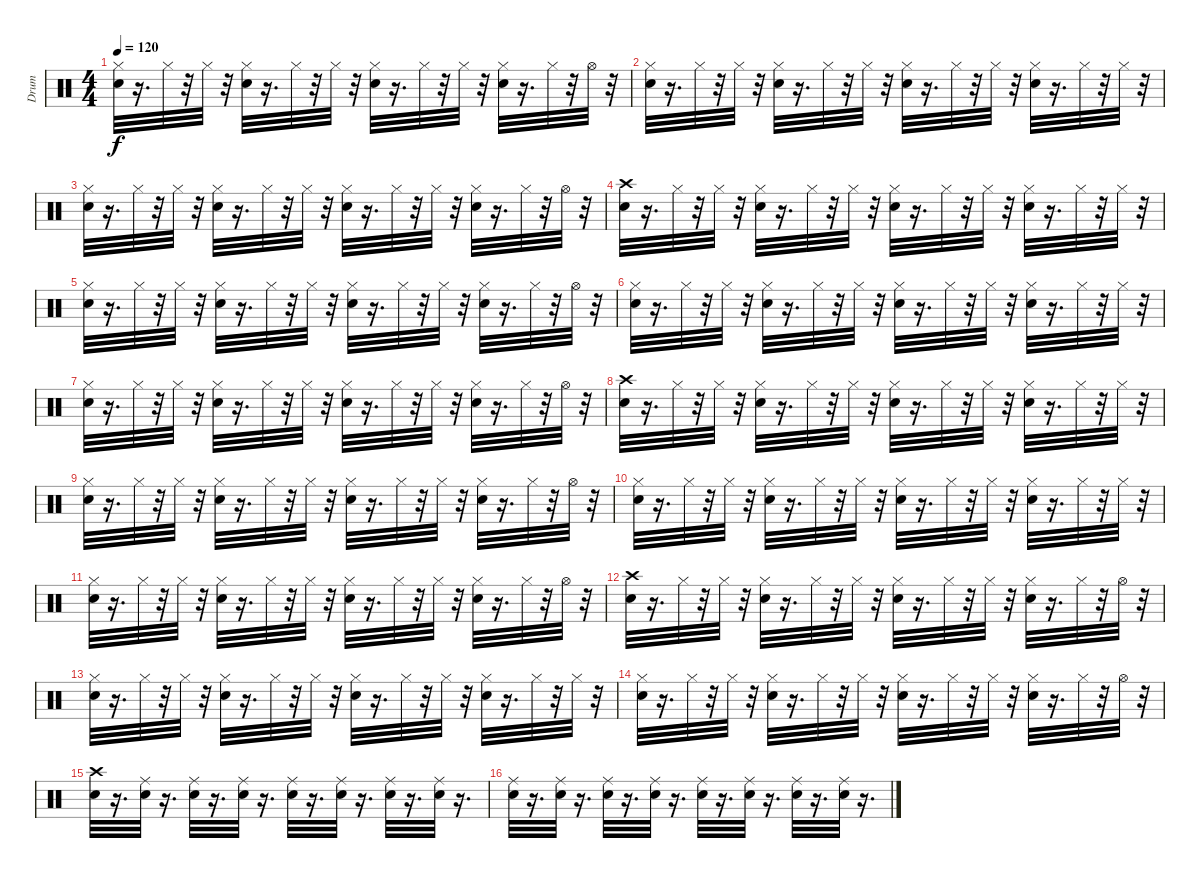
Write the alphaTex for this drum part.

\track ("Drum" "Drum") {instrument percussion}
\staff {score}
\articulation defaults
\ts (4 4)
\tempo 120
\clef neutral
\ks c
("Hi-Hat (closed)" "Snare (hit) 2").32{dy f} r.16{d} "Hi-Hat (closed)".32 r.32 "Hi-Hat (closed)".32 r.32 ("Hi-Hat (closed)" "Snare (hit) 2").32 r.16{d} "Hi-Hat (closed)".32 r.32 "Hi-Hat (closed)".32 r.32 ("Hi-Hat (closed)" "Snare (hit) 2").32 r.16{d} "Hi-Hat (closed)".32 r.32 "Hi-Hat (closed)".32 r.32 ("Hi-Hat (closed)" "Snare (hit) 2").32 r.16{d} "Hi-Hat (closed)".32 r.32 "Hi-Hat (open)".32 r.32 |
("Hi-Hat (closed)" "Snare (hit) 2").32 r.16{d} "Hi-Hat (closed)".32 r.32 "Hi-Hat (closed)".32 r.32 ("Hi-Hat (closed)" "Snare (hit) 2").32 r.16{d} "Hi-Hat (closed)".32 r.32 "Hi-Hat (closed)".32 r.32 ("Hi-Hat (closed)" "Snare (hit) 2").32 r.16{d} "Hi-Hat (closed)".32 r.32 "Hi-Hat (closed)".32 r.32 ("Hi-Hat (closed)" "Snare (hit) 2").32 r.16{d} "Hi-Hat (closed)".32 r.32 "Hi-Hat (closed)".32 r.32 |
("Hi-Hat (closed)" "Snare (hit) 2").32 r.16{d} "Hi-Hat (closed)".32 r.32 "Hi-Hat (closed)".32 r.32 ("Hi-Hat (closed)" "Snare (hit) 2").32 r.16{d} "Hi-Hat (closed)".32 r.32 "Hi-Hat (closed)".32 r.32 ("Hi-Hat (closed)" "Snare (hit) 2").32 r.16{d} "Hi-Hat (closed)".32 r.32 "Hi-Hat (closed)".32 r.32 ("Hi-Hat (closed)" "Snare (hit) 2").32 r.16{d} "Hi-Hat (closed)".32 r.32 "Hi-Hat (open)".32 r.32 |
("Crash high (hit)" "Snare (hit) 2").32 r.16{d} "Hi-Hat (closed)".32 r.32 "Hi-Hat (closed)".32 r.32 ("Hi-Hat (closed)" "Snare (hit) 2").32 r.16{d} "Hi-Hat (closed)".32 r.32 "Hi-Hat (closed)".32 r.32 ("Hi-Hat (closed)" "Snare (hit) 2").32 r.16{d} "Hi-Hat (closed)".32 r.32 "Hi-Hat (closed)".32 r.32 ("Hi-Hat (closed)" "Snare (hit) 2").32 r.16{d} "Hi-Hat (closed)".32 r.32 "Hi-Hat (closed)".32 r.32 |
("Hi-Hat (closed)" "Snare (hit) 2").32 r.16{d} "Hi-Hat (closed)".32 r.32 "Hi-Hat (closed)".32 r.32 ("Hi-Hat (closed)" "Snare (hit) 2").32 r.16{d} "Hi-Hat (closed)".32 r.32 "Hi-Hat (closed)".32 r.32 ("Hi-Hat (closed)" "Snare (hit) 2").32 r.16{d} "Hi-Hat (closed)".32 r.32 "Hi-Hat (closed)".32 r.32 ("Hi-Hat (closed)" "Snare (hit) 2").32 r.16{d} "Hi-Hat (closed)".32 r.32 "Hi-Hat (open)".32 r.32 |
("Hi-Hat (closed)" "Snare (hit) 2").32 r.16{d} "Hi-Hat (closed)".32 r.32 "Hi-Hat (closed)".32 r.32 ("Hi-Hat (closed)" "Snare (hit) 2").32 r.16{d} "Hi-Hat (closed)".32 r.32 "Hi-Hat (closed)".32 r.32 ("Hi-Hat (closed)" "Snare (hit) 2").32 r.16{d} "Hi-Hat (closed)".32 r.32 "Hi-Hat (closed)".32 r.32 ("Hi-Hat (closed)" "Snare (hit) 2").32 r.16{d} "Hi-Hat (closed)".32 r.32 "Hi-Hat (closed)".32 r.32 |
("Hi-Hat (closed)" "Snare (hit) 2").32 r.16{d} "Hi-Hat (closed)".32 r.32 "Hi-Hat (closed)".32 r.32 ("Hi-Hat (closed)" "Snare (hit) 2").32 r.16{d} "Hi-Hat (closed)".32 r.32 "Hi-Hat (closed)".32 r.32 ("Hi-Hat (closed)" "Snare (hit) 2").32 r.16{d} "Hi-Hat (closed)".32 r.32 "Hi-Hat (closed)".32 r.32 ("Hi-Hat (closed)" "Snare (hit) 2").32 r.16{d} "Hi-Hat (closed)".32 r.32 "Hi-Hat (open)".32 r.32 |
("Crash high (hit)" "Snare (hit) 2").32 r.16{d} "Hi-Hat (closed)".32 r.32 "Hi-Hat (closed)".32 r.32 ("Hi-Hat (closed)" "Snare (hit) 2").32 r.16{d} "Hi-Hat (closed)".32 r.32 "Hi-Hat (closed)".32 r.32 ("Hi-Hat (closed)" "Snare (hit) 2").32 r.16{d} "Hi-Hat (closed)".32 r.32 "Hi-Hat (closed)".32 r.32 ("Hi-Hat (closed)" "Snare (hit) 2").32 r.16{d} "Hi-Hat (closed)".32 r.32 "Hi-Hat (closed)".32 r.32 |
("Hi-Hat (closed)" "Snare (hit) 2").32 r.16{d} "Hi-Hat (closed)".32 r.32 "Hi-Hat (closed)".32 r.32 ("Hi-Hat (closed)" "Snare (hit) 2").32 r.16{d} "Hi-Hat (closed)".32 r.32 "Hi-Hat (closed)".32 r.32 ("Hi-Hat (closed)" "Snare (hit) 2").32 r.16{d} "Hi-Hat (closed)".32 r.32 "Hi-Hat (closed)".32 r.32 ("Hi-Hat (closed)" "Snare (hit) 2").32 r.16{d} "Hi-Hat (closed)".32 r.32 "Hi-Hat (open)".32 r.32 |
("Hi-Hat (closed)" "Snare (hit) 2").32 r.16{d} "Hi-Hat (closed)".32 r.32 "Hi-Hat (closed)".32 r.32 ("Hi-Hat (closed)" "Snare (hit) 2").32 r.16{d} "Hi-Hat (closed)".32 r.32 "Hi-Hat (closed)".32 r.32 ("Hi-Hat (closed)" "Snare (hit) 2").32 r.16{d} "Hi-Hat (closed)".32 r.32 "Hi-Hat (closed)".32 r.32 ("Hi-Hat (closed)" "Snare (hit) 2").32 r.16{d} "Hi-Hat (closed)".32 r.32 "Hi-Hat (closed)".32 r.32 |
("Hi-Hat (closed)" "Snare (hit) 2").32 r.16{d} "Hi-Hat (closed)".32 r.32 "Hi-Hat (closed)".32 r.32 ("Hi-Hat (closed)" "Snare (hit) 2").32 r.16{d} "Hi-Hat (closed)".32 r.32 "Hi-Hat (closed)".32 r.32 ("Hi-Hat (closed)" "Snare (hit) 2").32 r.16{d} "Hi-Hat (closed)".32 r.32 "Hi-Hat (closed)".32 r.32 ("Hi-Hat (closed)" "Snare (hit) 2").32 r.16{d} "Hi-Hat (closed)".32 r.32 "Hi-Hat (open)".32 r.32 |
("Crash high (hit)" "Snare (hit) 2").32 r.16{d} "Hi-Hat (closed)".32 r.32 "Hi-Hat (closed)".32 r.32 ("Hi-Hat (closed)" "Snare (hit) 2").32 r.16{d} "Hi-Hat (closed)".32 r.32 "Hi-Hat (closed)".32 r.32 ("Hi-Hat (closed)" "Snare (hit) 2").32 r.16{d} "Hi-Hat (closed)".32 r.32 "Hi-Hat (closed)".32 r.32 ("Hi-Hat (closed)" "Snare (hit) 2").32 r.16{d} "Hi-Hat (closed)".32 r.32 "Hi-Hat (open)".32 r.32 |
("Hi-Hat (closed)" "Snare (hit) 2").32 r.16{d} "Hi-Hat (closed)".32 r.32 "Hi-Hat (closed)".32 r.32 ("Hi-Hat (closed)" "Snare (hit) 2").32 r.16{d} "Hi-Hat (closed)".32 r.32 "Hi-Hat (closed)".32 r.32 ("Hi-Hat (closed)" "Snare (hit) 2").32 r.16{d} "Hi-Hat (closed)".32 r.32 "Hi-Hat (closed)".32 r.32 ("Hi-Hat (closed)" "Snare (hit) 2").32 r.16{d} "Hi-Hat (closed)".32 r.32 "Hi-Hat (closed)".32 r.32 |
("Hi-Hat (closed)" "Snare (hit) 2").32 r.16{d} "Hi-Hat (closed)".32 r.32 "Hi-Hat (closed)".32 r.32 ("Hi-Hat (closed)" "Snare (hit) 2").32 r.16{d} "Hi-Hat (closed)".32 r.32 "Hi-Hat (closed)".32 r.32 ("Hi-Hat (closed)" "Snare (hit) 2").32 r.16{d} "Hi-Hat (closed)".32 r.32 "Hi-Hat (closed)".32 r.32 ("Hi-Hat (closed)" "Snare (hit) 2").32 r.16{d} "Hi-Hat (closed)".32 r.32 "Hi-Hat (open)".32 r.32 |
("Crash high (hit)" "Snare (hit) 2").32 r.16{d} ("Ride (middle)" "Snare (hit) 2").32 r.16{d} ("Ride (middle)" "Snare (hit) 2").32 r.16{d} ("Ride (middle)" "Snare (hit) 2").32 r.16{d} ("Ride (middle)" "Snare (hit) 2").32 r.16{d} ("Ride (middle)" "Snare (hit) 2").32 r.16{d} ("Ride (middle)" "Snare (hit) 2").32 r.16{d} ("Ride (middle)" "Snare (hit) 2").32 r.16{d} |
("Ride (middle)" "Snare (hit) 2").32 r.16{d} ("Ride (middle)" "Snare (hit) 2").32 r.16{d} ("Ride (middle)" "Snare (hit) 2").32 r.16{d} ("Ride (middle)" "Snare (hit) 2").32 r.16{d} ("Ride (middle)" "Snare (hit) 2").32 r.16{d} ("Ride (middle)" "Snare (hit) 2").32 r.16{d} ("Ride (middle)" "Snare (hit) 2").32 r.16{d} ("Ride (middle)" "Snare (hit) 2").32 r.16{d}
